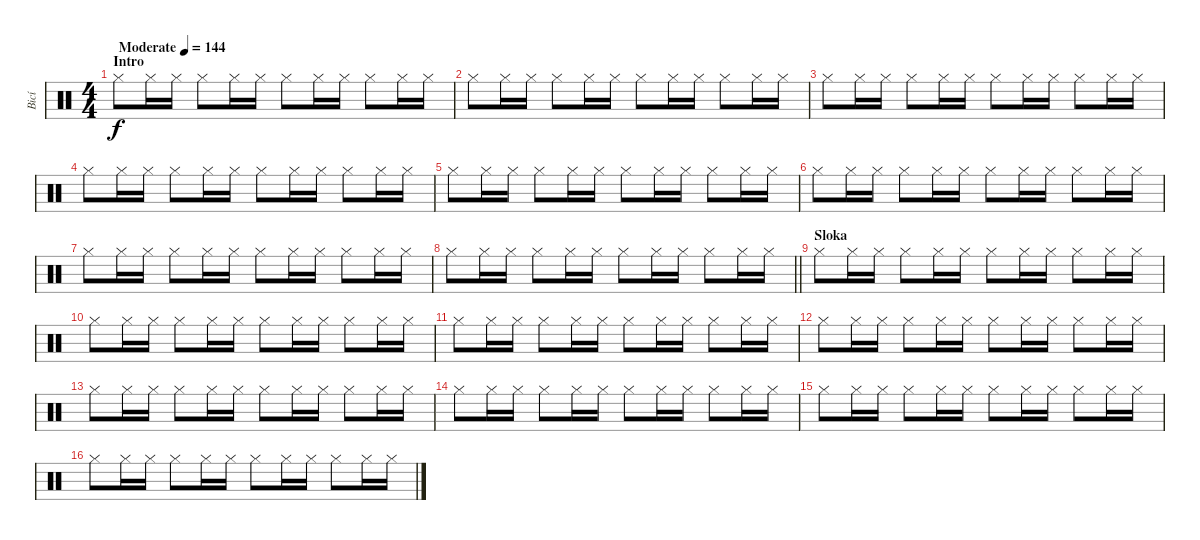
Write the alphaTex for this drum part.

\track ("Bicí" "Bicí") {instrument percussion}
\staff
\articulation defaults
\ts (4 4)
\section ("" "Intro")
\tempo (144 "Moderate")
\clef neutral
\ks c "Hi-Hat (closed)".8{dy f} "Hi-Hat (closed)".16 "Hi-Hat (closed)".16 "Hi-Hat (closed)".8 "Hi-Hat (closed)".16 "Hi-Hat (closed)".16 "Hi-Hat (closed)".8 "Hi-Hat (closed)".16 "Hi-Hat (closed)".16 "Hi-Hat (closed)".8 "Hi-Hat (closed)".16 "Hi-Hat (closed)".16
|
"Hi-Hat (closed)".8 "Hi-Hat (closed)".16 "Hi-Hat (closed)".16 "Hi-Hat (closed)".8 "Hi-Hat (closed)".16 "Hi-Hat (closed)".16 "Hi-Hat (closed)".8 "Hi-Hat (closed)".16 "Hi-Hat (closed)".16 "Hi-Hat (closed)".8 "Hi-Hat (closed)".16 "Hi-Hat (closed)".16 |
"Hi-Hat (closed)".8 "Hi-Hat (closed)".16 "Hi-Hat (closed)".16 "Hi-Hat (closed)".8 "Hi-Hat (closed)".16 "Hi-Hat (closed)".16 "Hi-Hat (closed)".8 "Hi-Hat (closed)".16 "Hi-Hat (closed)".16 "Hi-Hat (closed)".8 "Hi-Hat (closed)".16 "Hi-Hat (closed)".16 |
"Hi-Hat (closed)".8 "Hi-Hat (closed)".16 "Hi-Hat (closed)".16 "Hi-Hat (closed)".8 "Hi-Hat (closed)".16 "Hi-Hat (closed)".16 "Hi-Hat (closed)".8 "Hi-Hat (closed)".16 "Hi-Hat (closed)".16 "Hi-Hat (closed)".8 "Hi-Hat (closed)".16 "Hi-Hat (closed)".16 |
"Hi-Hat (closed)".8 "Hi-Hat (closed)".16 "Hi-Hat (closed)".16 "Hi-Hat (closed)".8 "Hi-Hat (closed)".16 "Hi-Hat (closed)".16 "Hi-Hat (closed)".8 "Hi-Hat (closed)".16 "Hi-Hat (closed)".16 "Hi-Hat (closed)".8 "Hi-Hat (closed)".16 "Hi-Hat (closed)".16 |
"Hi-Hat (closed)".8 "Hi-Hat (closed)".16 "Hi-Hat (closed)".16 "Hi-Hat (closed)".8 "Hi-Hat (closed)".16 "Hi-Hat (closed)".16 "Hi-Hat (closed)".8 "Hi-Hat (closed)".16 "Hi-Hat (closed)".16 "Hi-Hat (closed)".8 "Hi-Hat (closed)".16 "Hi-Hat (closed)".16 |
"Hi-Hat (closed)".8 "Hi-Hat (closed)".16 "Hi-Hat (closed)".16 "Hi-Hat (closed)".8 "Hi-Hat (closed)".16 "Hi-Hat (closed)".16 "Hi-Hat (closed)".8 "Hi-Hat (closed)".16 "Hi-Hat (closed)".16 "Hi-Hat (closed)".8 "Hi-Hat (closed)".16 "Hi-Hat (closed)".16 |
\barLineRight lightlight "Hi-Hat (closed)".8 "Hi-Hat (closed)".16 "Hi-Hat (closed)".16 "Hi-Hat (closed)".8 "Hi-Hat (closed)".16 "Hi-Hat (closed)".16 "Hi-Hat (closed)".8 "Hi-Hat (closed)".16 "Hi-Hat (closed)".16 "Hi-Hat (closed)".8 "Hi-Hat (closed)".16 "Hi-Hat (closed)".16
|
\section ("" "Sloka")
"Hi-Hat (closed)".8 "Hi-Hat (closed)".16 "Hi-Hat (closed)".16 "Hi-Hat (closed)".8 "Hi-Hat (closed)".16 "Hi-Hat (closed)".16 "Hi-Hat (closed)".8 "Hi-Hat (closed)".16 "Hi-Hat (closed)".16 "Hi-Hat (closed)".8 "Hi-Hat (closed)".16 "Hi-Hat (closed)".16 |
"Hi-Hat (closed)".8 "Hi-Hat (closed)".16 "Hi-Hat (closed)".16 "Hi-Hat (closed)".8 "Hi-Hat (closed)".16 "Hi-Hat (closed)".16 "Hi-Hat (closed)".8 "Hi-Hat (closed)".16 "Hi-Hat (closed)".16 "Hi-Hat (closed)".8 "Hi-Hat (closed)".16 "Hi-Hat (closed)".16 |
"Hi-Hat (closed)".8 "Hi-Hat (closed)".16 "Hi-Hat (closed)".16 "Hi-Hat (closed)".8 "Hi-Hat (closed)".16 "Hi-Hat (closed)".16 "Hi-Hat (closed)".8 "Hi-Hat (closed)".16 "Hi-Hat (closed)".16 "Hi-Hat (closed)".8 "Hi-Hat (closed)".16 "Hi-Hat (closed)".16 |
"Hi-Hat (closed)".8 "Hi-Hat (closed)".16 "Hi-Hat (closed)".16 "Hi-Hat (closed)".8 "Hi-Hat (closed)".16 "Hi-Hat (closed)".16 "Hi-Hat (closed)".8 "Hi-Hat (closed)".16 "Hi-Hat (closed)".16 "Hi-Hat (closed)".8 "Hi-Hat (closed)".16 "Hi-Hat (closed)".16 |
"Hi-Hat (closed)".8 "Hi-Hat (closed)".16 "Hi-Hat (closed)".16 "Hi-Hat (closed)".8 "Hi-Hat (closed)".16 "Hi-Hat (closed)".16 "Hi-Hat (closed)".8 "Hi-Hat (closed)".16 "Hi-Hat (closed)".16 "Hi-Hat (closed)".8 "Hi-Hat (closed)".16 "Hi-Hat (closed)".16 |
"Hi-Hat (closed)".8 "Hi-Hat (closed)".16 "Hi-Hat (closed)".16 "Hi-Hat (closed)".8 "Hi-Hat (closed)".16 "Hi-Hat (closed)".16 "Hi-Hat (closed)".8 "Hi-Hat (closed)".16 "Hi-Hat (closed)".16 "Hi-Hat (closed)".8 "Hi-Hat (closed)".16 "Hi-Hat (closed)".16 |
"Hi-Hat (closed)".8 "Hi-Hat (closed)".16 "Hi-Hat (closed)".16 "Hi-Hat (closed)".8 "Hi-Hat (closed)".16 "Hi-Hat (closed)".16 "Hi-Hat (closed)".8 "Hi-Hat (closed)".16 "Hi-Hat (closed)".16 "Hi-Hat (closed)".8 "Hi-Hat (closed)".16 "Hi-Hat (closed)".16 |
"Hi-Hat (closed)".8 "Hi-Hat (closed)".16 "Hi-Hat (closed)".16 "Hi-Hat (closed)".8 "Hi-Hat (closed)".16 "Hi-Hat (closed)".16 "Hi-Hat (closed)".8 "Hi-Hat (closed)".16 "Hi-Hat (closed)".16 "Hi-Hat (closed)".8 "Hi-Hat (closed)".16 "Hi-Hat (closed)".16
